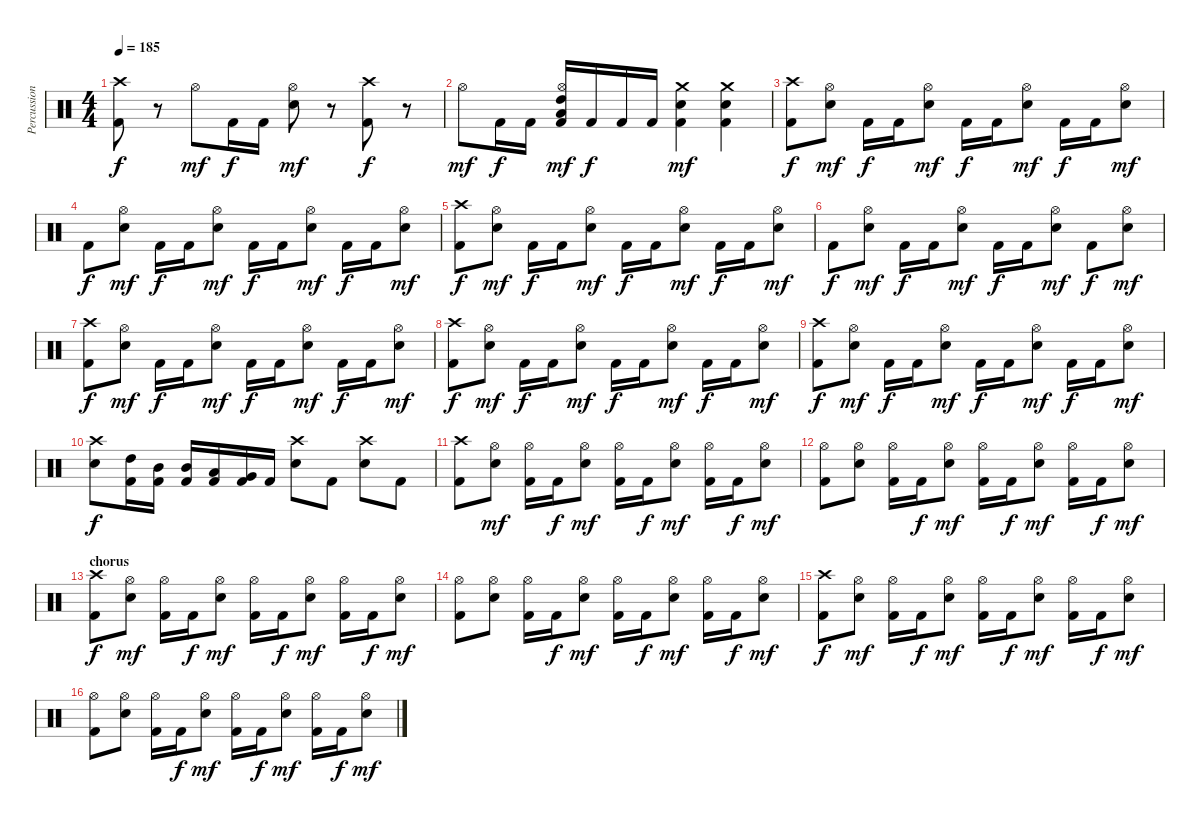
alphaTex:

\track ("Percussion" "Percussion") {instrument percussion}
\staff {score}
\articulation defaults
\ts (4 4)
\tempo 185
\clef neutral
\ks c
("Crash high (hit)" "Kick (hit) 2").8{dy f} r.8 "Hi-Hat (open)".8{dy mf} "Kick (hit) 2".16{dy f} "Kick (hit) 2".16 ("Hi-Hat (open)" "Electric Snare (hit)").8{dy mf} r.8 ("Crash high (hit)" "Kick (hit) 2").8{dy f} r.8 |
"Hi-Hat (open)".8{dy mf} "Kick (hit) 2".16{dy f} "Kick (hit) 2".16 ("Hi-Hat (open)" "High Tom (hit)" "Low Tom (hit)" "Kick (hit) 2").16{dy mf} "Kick (hit) 2".16{dy f} "Kick (hit) 2".16 "Kick (hit) 2".16 ("Crash medium (hit)" "Electric Snare (hit)" "Kick (hit) 2").4{dy mf} ("Crash medium (hit)" "Electric Snare (hit)" "Kick (hit) 2").4 |
\section ("" "")
("Crash high (hit)" "Kick (hit) 2").8{dy f} ("Hi-Hat (open)" "Electric Snare (hit)").8{dy mf} "Kick (hit) 2".16{dy f} "Kick (hit) 2".16 ("Hi-Hat (open)" "Electric Snare (hit)").8{dy mf} "Kick (hit) 2".16{dy f} "Kick (hit) 2".16 ("Hi-Hat (open)" "Electric Snare (hit)").8{dy mf} "Kick (hit) 2".16{dy f} "Kick (hit) 2".16 ("Hi-Hat (open)" "Electric Snare (hit)").8{dy mf} |
"Kick (hit) 2".8{dy f} ("Hi-Hat (open)" "Electric Snare (hit)").8{dy mf} "Kick (hit) 2".16{dy f} "Kick (hit) 2".16 ("Hi-Hat (open)" "Electric Snare (hit)").8{dy mf} "Kick (hit) 2".16{dy f} "Kick (hit) 2".16 ("Hi-Hat (open)" "Electric Snare (hit)").8{dy mf} "Kick (hit) 2".16{dy f} "Kick (hit) 2".16 ("Hi-Hat (open)" "Electric Snare (hit)").8{dy mf} |
("Crash high (hit)" "Kick (hit) 2").8{dy f} ("Hi-Hat (open)" "Electric Snare (hit)").8{dy mf} "Kick (hit) 2".16{dy f} "Kick (hit) 2".16 ("Hi-Hat (open)" "Electric Snare (hit)").8{dy mf} "Kick (hit) 2".16{dy f} "Kick (hit) 2".16 ("Hi-Hat (open)" "Electric Snare (hit)").8{dy mf} "Kick (hit) 2".16{dy f} "Kick (hit) 2".16 ("Hi-Hat (open)" "Electric Snare (hit)").8{dy mf} |
"Kick (hit) 2".8{dy f} ("Hi-Hat (open)" "Electric Snare (hit)").8{dy mf} "Kick (hit) 2".16{dy f} "Kick (hit) 2".16 ("Hi-Hat (open)" "Electric Snare (hit)").8{dy mf} "Kick (hit) 2".16{dy f} "Kick (hit) 2".16 ("Hi-Hat (open)" "Electric Snare (hit)").8{dy mf} "Kick (hit) 2".8{dy f} ("Hi-Hat (open)" "Electric Snare (hit)").8{dy mf} |
("Crash high (hit)" "Kick (hit) 2").8{dy f} ("Hi-Hat (open)" "Electric Snare (hit)").8{dy mf} "Kick (hit) 2".16{dy f} "Kick (hit) 2".16 ("Hi-Hat (open)" "Electric Snare (hit)").8{dy mf} "Kick (hit) 2".16{dy f} "Kick (hit) 2".16 ("Hi-Hat (open)" "Electric Snare (hit)").8{dy mf} "Kick (hit) 2".16{dy f} "Kick (hit) 2".16 ("Hi-Hat (open)" "Electric Snare (hit)").8{dy mf} |
("Crash high (hit)" "Kick (hit) 2").8{dy f} ("Hi-Hat (open)" "Electric Snare (hit)").8{dy mf} "Kick (hit) 2".16{dy f} "Kick (hit) 2".16 ("Hi-Hat (open)" "Electric Snare (hit)").8{dy mf} "Kick (hit) 2".16{dy f} "Kick (hit) 2".16 ("Hi-Hat (open)" "Electric Snare (hit)").8{dy mf} "Kick (hit) 2".16{dy f} "Kick (hit) 2".16 ("Hi-Hat (open)" "Electric Snare (hit)").8{dy mf} |
("Crash high (hit)" "Kick (hit) 2").8{dy f} ("Hi-Hat (open)" "Electric Snare (hit)").8{dy mf} "Kick (hit) 2".16{dy f} "Kick (hit) 2".16 ("Hi-Hat (open)" "Electric Snare (hit)").8{dy mf} "Kick (hit) 2".16{dy f} "Kick (hit) 2".16 ("Hi-Hat (open)" "Electric Snare (hit)").8{dy mf} "Kick (hit) 2".16{dy f} "Kick (hit) 2".16 ("Hi-Hat (open)" "Electric Snare (hit)").8{dy mf} |
("Crash high (hit)" "Electric Snare (hit)").8{dy f} ("High Tom (hit)" "Kick (hit) 2").16 ("Mid Tom (hit)" "Kick (hit) 2").16 ("Mid Tom (hit)" "Kick (hit) 2").16 ("Low Tom (hit)" "Kick (hit) 2").16 ("Very Low Tom (hit)" "Kick (hit) 2").16 "Kick (hit) 2".16 ("Crash high (hit)" "Electric Snare (hit)").8 "Kick (hit) 2".8 ("Crash high (hit)" "Electric Snare (hit)").8 "Kick (hit) 2".8 |
("Crash high (hit)" "Kick (hit) 2").8 ("Hi-Hat (open)" "Electric Snare (hit)").8{dy mf} ("Hi-Hat (open)" "Kick (hit) 2").16 "Kick (hit) 2".16{dy f} ("Hi-Hat (open)" "Electric Snare (hit)").8{dy mf} ("Hi-Hat (open)" "Kick (hit) 2").16 "Kick (hit) 2".16{dy f} ("Hi-Hat (open)" "Electric Snare (hit)").8{dy mf} ("Hi-Hat (open)" "Kick (hit) 2").16 "Kick (hit) 2".16{dy f} ("Hi-Hat (open)" "Electric Snare (hit)").8{dy mf} |
("Hi-Hat (open)" "Kick (hit) 2").8 ("Hi-Hat (open)" "Electric Snare (hit)").8 ("Hi-Hat (open)" "Kick (hit) 2").16 "Kick (hit) 2".16{dy f} ("Hi-Hat (open)" "Electric Snare (hit)").8{dy mf} ("Hi-Hat (open)" "Kick (hit) 2").16 "Kick (hit) 2".16{dy f} ("Hi-Hat (open)" "Electric Snare (hit)").8{dy mf} ("Hi-Hat (open)" "Kick (hit) 2").16 "Kick (hit) 2".16{dy f} ("Hi-Hat (open)" "Electric Snare (hit)").8{dy mf} |
\section ("" "chorus")
("Crash high (hit)" "Kick (hit) 2").8{dy f} ("Hi-Hat (open)" "Electric Snare (hit)").8{dy mf} ("Hi-Hat (open)" "Kick (hit) 2").16 "Kick (hit) 2".16{dy f} ("Hi-Hat (open)" "Electric Snare (hit)").8{dy mf} ("Hi-Hat (open)" "Kick (hit) 2").16 "Kick (hit) 2".16{dy f} ("Hi-Hat (open)" "Electric Snare (hit)").8{dy mf} ("Hi-Hat (open)" "Kick (hit) 2").16 "Kick (hit) 2".16{dy f} ("Hi-Hat (open)" "Electric Snare (hit)").8{dy mf} |
("Hi-Hat (open)" "Kick (hit) 2").8 ("Hi-Hat (open)" "Electric Snare (hit)").8 ("Hi-Hat (open)" "Kick (hit) 2").16 "Kick (hit) 2".16{dy f} ("Hi-Hat (open)" "Electric Snare (hit)").8{dy mf} ("Hi-Hat (open)" "Kick (hit) 2").16 "Kick (hit) 2".16{dy f} ("Hi-Hat (open)" "Electric Snare (hit)").8{dy mf} ("Hi-Hat (open)" "Kick (hit) 2").16 "Kick (hit) 2".16{dy f} ("Hi-Hat (open)" "Electric Snare (hit)").8{dy mf} |
("Crash high (hit)" "Kick (hit) 2").8{dy f} ("Hi-Hat (open)" "Electric Snare (hit)").8{dy mf} ("Hi-Hat (open)" "Kick (hit) 2").16 "Kick (hit) 2".16{dy f} ("Hi-Hat (open)" "Electric Snare (hit)").8{dy mf} ("Hi-Hat (open)" "Kick (hit) 2").16 "Kick (hit) 2".16{dy f} ("Hi-Hat (open)" "Electric Snare (hit)").8{dy mf} ("Hi-Hat (open)" "Kick (hit) 2").16 "Kick (hit) 2".16{dy f} ("Hi-Hat (open)" "Electric Snare (hit)").8{dy mf} |
("Hi-Hat (open)" "Kick (hit) 2").8 ("Hi-Hat (open)" "Electric Snare (hit)").8 ("Hi-Hat (open)" "Kick (hit) 2").16 "Kick (hit) 2".16{dy f} ("Hi-Hat (open)" "Electric Snare (hit)").8{dy mf} ("Hi-Hat (open)" "Kick (hit) 2").16 "Kick (hit) 2".16{dy f} ("Hi-Hat (open)" "Electric Snare (hit)").8{dy mf} ("Hi-Hat (open)" "Kick (hit) 2").16 "Kick (hit) 2".16{dy f} ("Hi-Hat (open)" "Electric Snare (hit)").8{dy mf}
